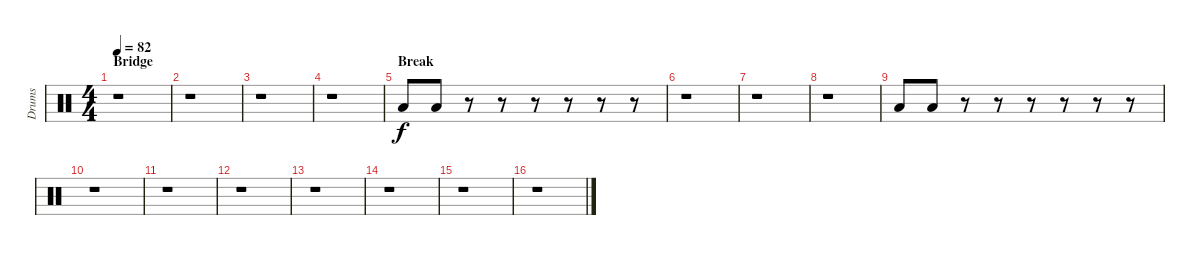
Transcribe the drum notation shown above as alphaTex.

\track ("Drums" "Drums") {instrument percussion}
\staff {score}
\articulation defaults
\ts (4 4)
\section ("" "Bridge")
\tempo 82
\clef neutral
\ks c
r.1{dy f} |
r.1 |
r.1 |
r.1 |
\section ("" "Break")
"Low Floor Tom (hit)".8 "Low Floor Tom (hit)".8 r.8 r.8 r.8 r.8 r.8 r.8 |
r.1 |
r.1 |
r.1 |
"Low Floor Tom (hit)".8 "Low Floor Tom (hit)".8 r.8 r.8 r.8 r.8 r.8 r.8 |
r.1 |
r.1 |
r.1 |
r.1 |
r.1 |
r.1 |
r.1
